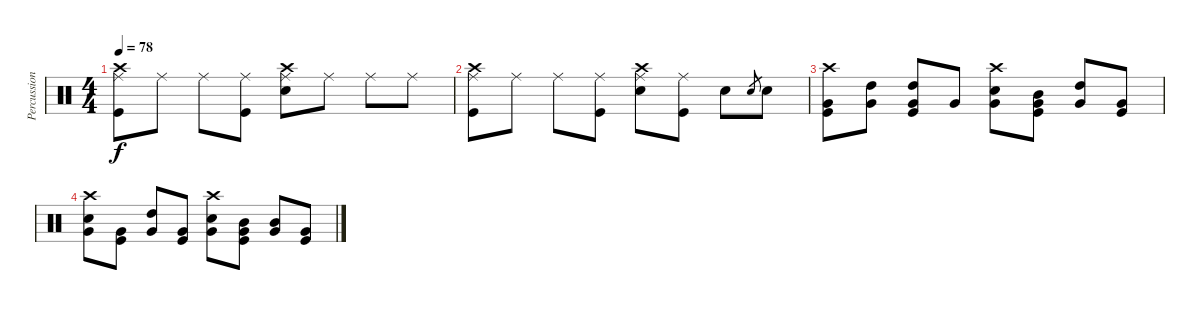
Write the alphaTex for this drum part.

\track ("Percussion" "Percussion") {instrument percussion}
\staff {score}
\articulation defaults
\ts (4 4)
\tempo 78
\clef neutral
\ks c
("Crash high (hit)" "Ride (middle)" "Kick (hit)").8{dy f} "Ride (middle)".8 "Ride (middle)".8 ("Ride (middle)" "Kick (hit)").8 ("Crash high (hit)" "Ride (middle)" "Snare (hit) 2").8 "Ride (middle)".8 "Ride (middle)".8 "Ride (middle)".8 |
("Crash high (hit)" "Ride (middle)" "Kick (hit)").8 "Ride (middle)".8 "Ride (middle)".8 ("Ride (middle)" "Kick (hit)").8 ("Crash high (hit)" "Ride (middle)" "Snare (hit) 2").8 ("Ride (middle)" "Kick (hit)").8 "Snare (hit) 2".8 "Snare (hit) 2".8{gr} "Snare (hit) 2".8 |
("Crash high (hit)" "Very Low Tom (hit)" "Kick (hit)").8 ("High Tom (hit)" "Very Low Tom (hit)").8 ("High Tom (hit)" "Very Low Tom (hit)" "Kick (hit)").8 "Very Low Tom (hit)".8 ("Crash high (hit)" "Snare (hit) 2" "Very Low Tom (hit)").8 ("Mid Tom (hit)" "Very Low Tom (hit)" "Kick (hit)").8 ("High Tom (hit)" "Very Low Tom (hit)").8 ("Very Low Tom (hit)" "Kick (hit)").8 |
("Crash high (hit)" "Snare (hit) 2" "Very Low Tom (hit)").8 ("Very Low Tom (hit)" "Kick (hit)").8 ("High Tom (hit)" "Very Low Tom (hit)").8 ("Very Low Tom (hit)" "Kick (hit)").8 ("Crash high (hit)" "Snare (hit) 2" "Very Low Tom (hit)").8 ("Mid Tom (hit)" "Very Low Tom (hit)" "Kick (hit)").8 ("Mid Tom (hit)" "Very Low Tom (hit)").8 ("Very Low Tom (hit)" "Kick (hit)").8
